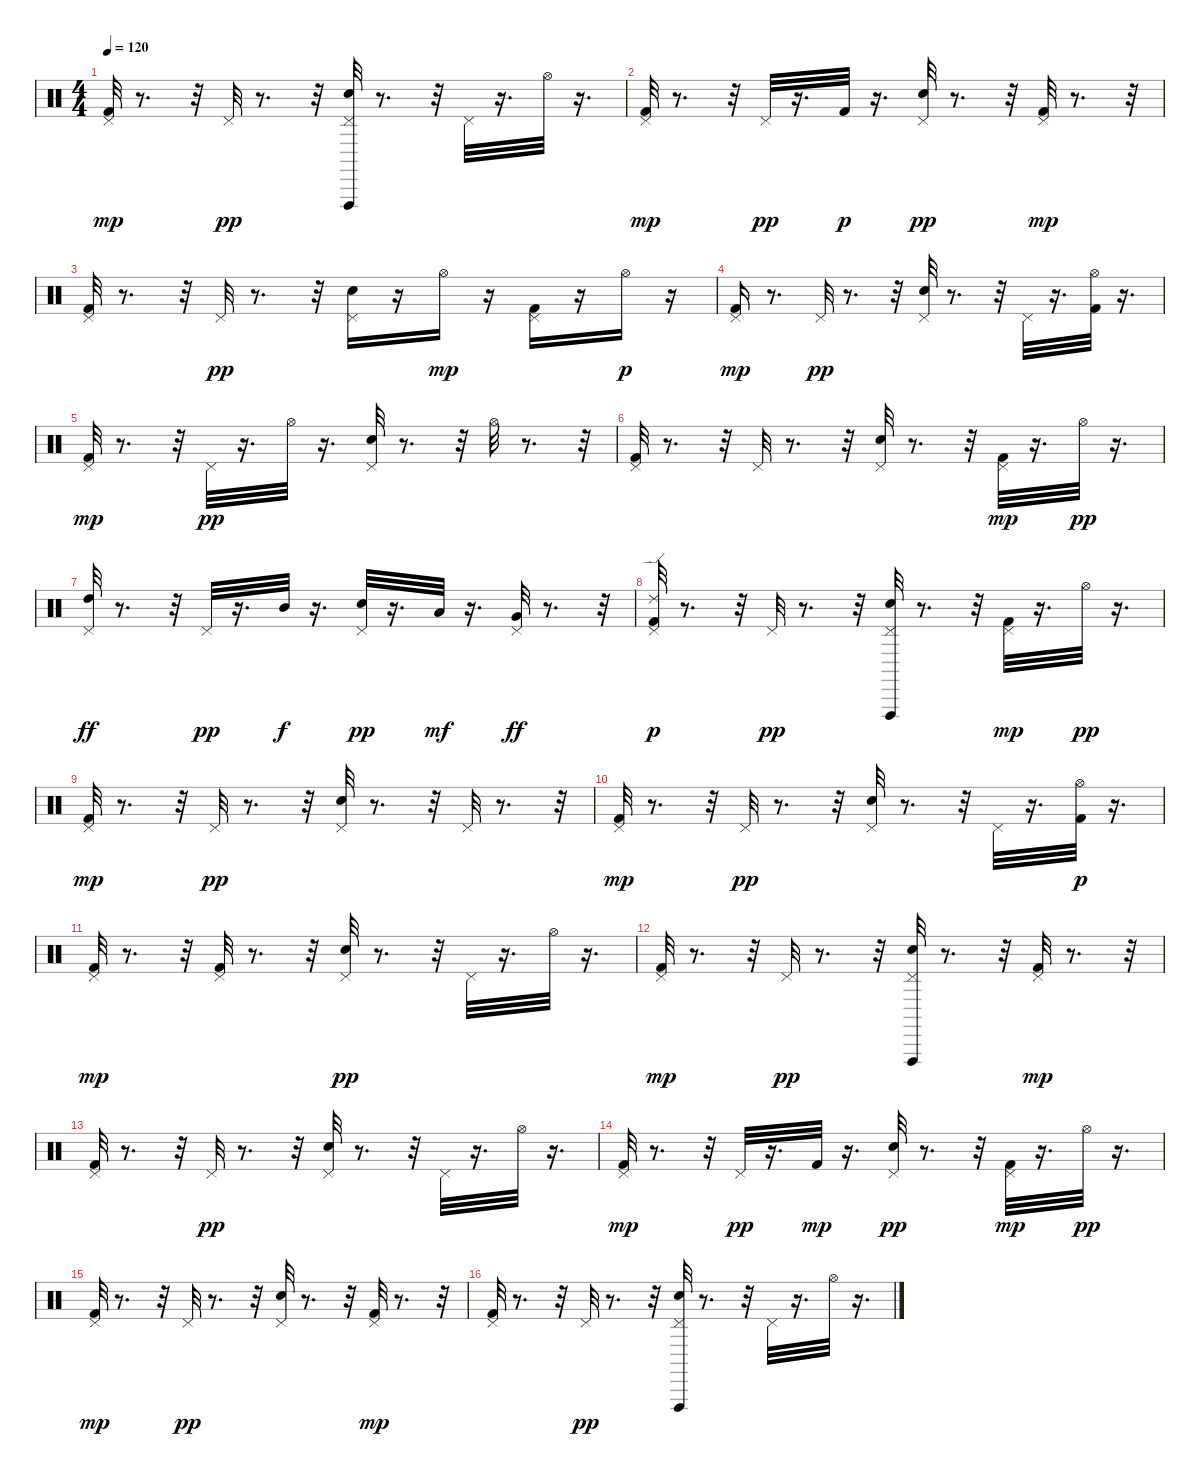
\track "" {instrument percussion}
\staff {score}
\articulation defaults
\ts (4 4)
\tempo 120
\clef neutral
\ks c
("Pedal Hi-Hat (hit)" "Kick (hit) 2").32{dy mp} r.8{d} r.32 "Pedal Hi-Hat (hit)".32{dy pp} r.8{d} r.32 ("Vibraslap (hit)" "Pedal Hi-Hat (hit)" "Snare (hit) 2").32 r.8{d} r.32 "Pedal Hi-Hat (hit)".32 r.16{d} "Hi-Hat (open)".32 r.16{d} |
("Pedal Hi-Hat (hit)" "Kick (hit) 2").32{dy mp} r.8{d} r.32 "Pedal Hi-Hat (hit)".32{dy pp} r.16{d} "Kick (hit) 2".32{dy p} r.16{d} ("Pedal Hi-Hat (hit)" "Snare (hit) 2").32{dy pp} r.8{d} r.32 ("Pedal Hi-Hat (hit)" "Kick (hit) 2").32{dy mp} r.8{d} r.32 |
("Pedal Hi-Hat (hit)" "Kick (hit) 2").32 r.8{d} r.32 "Pedal Hi-Hat (hit)".32{dy pp} r.8{d} r.32 ("Pedal Hi-Hat (hit)" "Snare (hit) 2").16 r.16 "Hi-Hat (open)".16{dy mp} r.16 ("Kick (hit) 2" "Pedal Hi-Hat (hit)").16 r.16 "Hi-Hat (open)".16{dy p} r.16 |
("Pedal Hi-Hat (hit)" "Kick (hit) 2").16{dy mp} r.8{d} "Pedal Hi-Hat (hit)".32{dy pp} r.8{d} r.32 ("Pedal Hi-Hat (hit)" "Snare (hit) 2").32 r.8{d} r.32 "Pedal Hi-Hat (hit)".32 r.16{d} ("Kick (hit) 2" "Hi-Hat (open)").32 r.16{d} |
("Pedal Hi-Hat (hit)" "Kick (hit) 2").32{dy mp} r.8{d} r.32 "Pedal Hi-Hat (hit)".32{dy pp} r.16{d} "Hi-Hat (open)".32 r.16{d} ("Pedal Hi-Hat (hit)" "Snare (hit) 2").32 r.8{d} r.32 "Hi-Hat (open)".32 r.8{d} r.32 |
("Kick (hit) 2" "Pedal Hi-Hat (hit)").32 r.8{d} r.32 "Pedal Hi-Hat (hit)".32 r.8{d} r.32 ("Pedal Hi-Hat (hit)" "Snare (hit) 2").32 r.8{d} r.32 ("Pedal Hi-Hat (hit)" "Kick (hit) 2").32{dy mp} r.16{d} "Hi-Hat (open)".32{dy pp} r.16{d} |
("Pedal Hi-Hat (hit)" "High Tom (hit)").32{dy ff} r.8{d} r.32 "Pedal Hi-Hat (hit)".32{dy pp} r.16{d} "Mid Tom (hit)".32{dy f} r.16{d} ("Pedal Hi-Hat (hit)" "Snare (hit) 2").32{dy pp} r.16{d} "Low Tom (hit)".32{dy mf} r.16{d} ("Pedal Hi-Hat (hit)" "Very Low Tom (hit)").32{dy ff} r.8{d} r.32 |
("Pedal Hi-Hat (hit)" "Kick (hit) 2" "Ride (edge) 2").32{dy p} r.8{d} r.32 "Pedal Hi-Hat (hit)".32{dy pp} r.8{d} r.32 ("Vibraslap (hit)" "Pedal Hi-Hat (hit)" "Snare (hit) 2").32 r.8{d} r.32 ("Pedal Hi-Hat (hit)" "Kick (hit) 2").32{dy mp} r.16{d} "Hi-Hat (open)".32{dy pp} r.16{d} |
("Pedal Hi-Hat (hit)" "Kick (hit) 2").32{dy mp} r.8{d} r.32 "Pedal Hi-Hat (hit)".32{dy pp} r.8{d} r.32 ("Pedal Hi-Hat (hit)" "Snare (hit) 2").32 r.8{d} r.32 "Pedal Hi-Hat (hit)".32 r.8{d} r.32 |
("Pedal Hi-Hat (hit)" "Kick (hit) 2").32{dy mp} r.8{d} r.32 "Pedal Hi-Hat (hit)".32{dy pp} r.8{d} r.32 ("Pedal Hi-Hat (hit)" "Snare (hit) 2").32 r.8{d} r.32 "Pedal Hi-Hat (hit)".32 r.16{d} ("Hi-Hat (open)" "Kick (hit) 2").32{dy p} r.16{d} |
("Pedal Hi-Hat (hit)" "Kick (hit) 2").32{dy mp} r.8{d} r.32 ("Pedal Hi-Hat (hit)" "Kick (hit) 2").32 r.8{d} r.32 ("Pedal Hi-Hat (hit)" "Snare (hit) 2").32{dy pp} r.8{d} r.32 "Pedal Hi-Hat (hit)".32 r.16{d} "Hi-Hat (open)".32 r.16{d} |
("Pedal Hi-Hat (hit)" "Kick (hit) 2").32{dy mp} r.8{d} r.32 "Pedal Hi-Hat (hit)".32{dy pp} r.8{d} r.32 ("Vibraslap (hit)" "Pedal Hi-Hat (hit)" "Snare (hit) 2").32 r.8{d} r.32 ("Pedal Hi-Hat (hit)" "Kick (hit) 2").32{dy mp} r.8{d} r.32 |
("Pedal Hi-Hat (hit)" "Kick (hit) 2").32 r.8{d} r.32 "Pedal Hi-Hat (hit)".32{dy pp} r.8{d} r.32 ("Pedal Hi-Hat (hit)" "Snare (hit) 2").32 r.8{d} r.32 "Pedal Hi-Hat (hit)".32 r.16{d} "Hi-Hat (open)".32 r.16{d} |
("Pedal Hi-Hat (hit)" "Kick (hit) 2").32{dy mp} r.8{d} r.32 "Pedal Hi-Hat (hit)".32{dy pp} r.16{d} "Kick (hit) 2".32{dy mp} r.16{d} ("Pedal Hi-Hat (hit)" "Snare (hit) 2").32{dy pp} r.8{d} r.32 ("Pedal Hi-Hat (hit)" "Kick (hit) 2").32{dy mp} r.16{d} "Hi-Hat (open)".32{dy pp} r.16{d} |
("Pedal Hi-Hat (hit)" "Kick (hit) 2").32{dy mp} r.8{d} r.32 "Pedal Hi-Hat (hit)".32{dy pp} r.8{d} r.32 ("Pedal Hi-Hat (hit)" "Snare (hit) 2").32 r.8{d} r.32 ("Pedal Hi-Hat (hit)" "Kick (hit) 2").32{dy mp} r.8{d} r.32 |
("Pedal Hi-Hat (hit)" "Kick (hit) 2").32 r.8{d} r.32 "Pedal Hi-Hat (hit)".32{dy pp} r.8{d} r.32 ("Vibraslap (hit)" "Pedal Hi-Hat (hit)" "Snare (hit) 2").32 r.8{d} r.32 "Pedal Hi-Hat (hit)".32 r.16{d} "Hi-Hat (open)".32 r.16{d}
